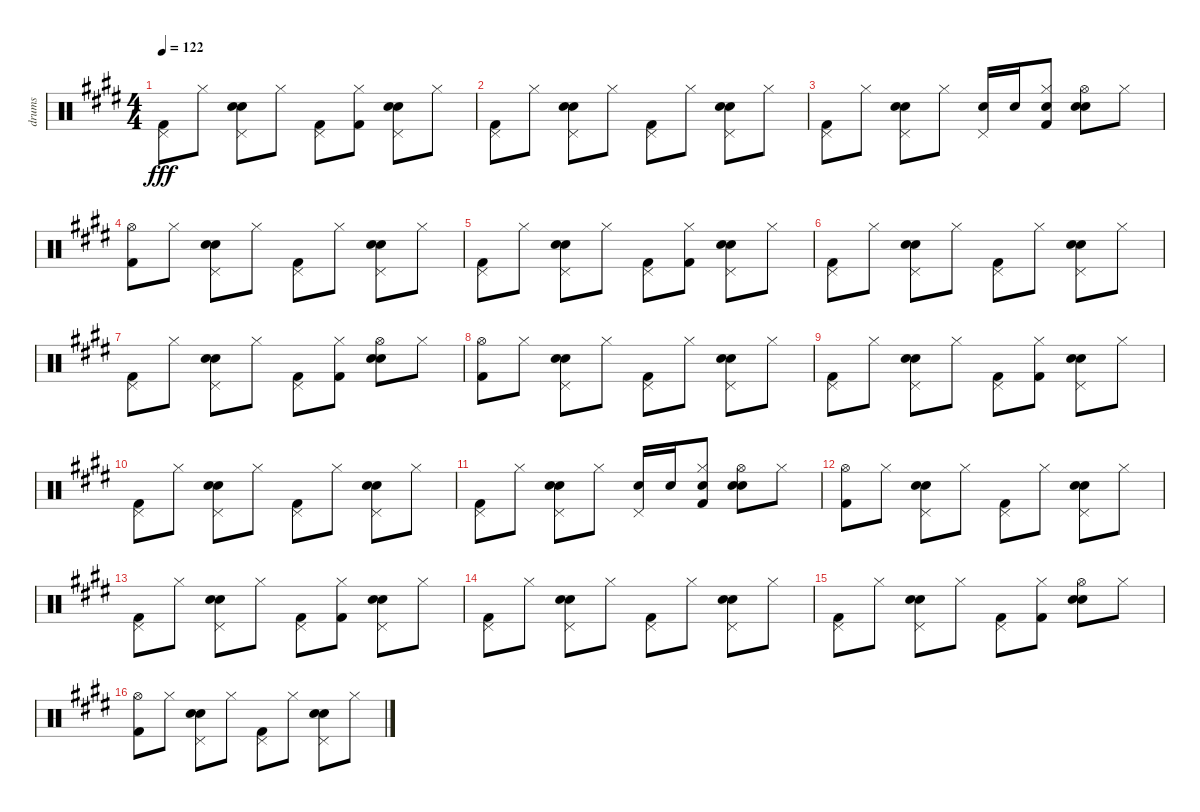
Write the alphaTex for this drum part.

\track ("drums" "drums") {instrument percussion}
\staff {score}
\articulation defaults
\ts (4 4)
\tempo 122
\clef neutral
\ks e
("Pedal Hi-Hat (hit)" "Kick (hit) 2").8{dy fff} "Hi-Hat (closed)".8 ("Hand Clap (hit)" "Pedal Hi-Hat (hit)" "Snare (hit) 2").8 "Hi-Hat (closed)".8 ("Pedal Hi-Hat (hit)" "Kick (hit) 2").8 ("Hi-Hat (closed)" "Kick (hit) 2").8 ("Hand Clap (hit)" "Pedal Hi-Hat (hit)" "Snare (hit) 2").8 "Hi-Hat (closed)".8 |
("Pedal Hi-Hat (hit)" "Kick (hit) 2").8 "Hi-Hat (closed)".8 ("Hand Clap (hit)" "Pedal Hi-Hat (hit)" "Snare (hit) 2").8 "Hi-Hat (closed)".8 ("Pedal Hi-Hat (hit)" "Kick (hit) 2").8 "Hi-Hat (closed)".8 ("Hand Clap (hit)" "Pedal Hi-Hat (hit)" "Snare (hit) 2").8 "Hi-Hat (closed)".8 |
("Kick (hit) 2" "Pedal Hi-Hat (hit)").8 "Hi-Hat (closed)".8 ("Hand Clap (hit)" "Snare (hit) 2" "Pedal Hi-Hat (hit)").8 "Hi-Hat (closed)".8 ("Snare (hit) 2" "Pedal Hi-Hat (hit)").16 "Snare (hit) 2".16 ("Kick (hit) 2" "Snare (hit) 2" "Hi-Hat (closed)").8 ("Hand Clap (hit)" "Hi-Hat (open)" "Snare (hit) 2").8 "Hi-Hat (closed)".8 |
("Hi-Hat (open)" "Kick (hit) 2").8 "Hi-Hat (closed)".8 ("Hand Clap (hit)" "Pedal Hi-Hat (hit)" "Snare (hit) 2").8 "Hi-Hat (closed)".8 ("Pedal Hi-Hat (hit)" "Kick (hit) 2").8 "Hi-Hat (closed)".8 ("Hand Clap (hit)" "Pedal Hi-Hat (hit)" "Snare (hit) 2").8 "Hi-Hat (closed)".8 |
("Pedal Hi-Hat (hit)" "Kick (hit) 2").8 "Hi-Hat (closed)".8 ("Hand Clap (hit)" "Pedal Hi-Hat (hit)" "Snare (hit) 2").8 "Hi-Hat (closed)".8 ("Pedal Hi-Hat (hit)" "Kick (hit) 2").8 ("Hi-Hat (closed)" "Kick (hit) 2").8 ("Hand Clap (hit)" "Pedal Hi-Hat (hit)" "Snare (hit) 2").8 "Hi-Hat (closed)".8 |
("Pedal Hi-Hat (hit)" "Kick (hit) 2").8 "Hi-Hat (closed)".8 ("Hand Clap (hit)" "Pedal Hi-Hat (hit)" "Snare (hit) 2").8 "Hi-Hat (closed)".8 ("Pedal Hi-Hat (hit)" "Kick (hit) 2").8 "Hi-Hat (closed)".8 ("Hand Clap (hit)" "Pedal Hi-Hat (hit)" "Snare (hit) 2").8 "Hi-Hat (closed)".8 |
("Pedal Hi-Hat (hit)" "Kick (hit) 2").8 "Hi-Hat (closed)".8 ("Hand Clap (hit)" "Pedal Hi-Hat (hit)" "Snare (hit) 2").8 "Hi-Hat (closed)".8 ("Kick (hit) 2" "Pedal Hi-Hat (hit)").8 ("Kick (hit) 2" "Hi-Hat (closed)").8 ("Hand Clap (hit)" "Hi-Hat (open)" "Snare (hit) 2").8 "Hi-Hat (closed)".8 |
("Hi-Hat (open)" "Kick (hit) 2").8 "Hi-Hat (closed)".8 ("Hand Clap (hit)" "Pedal Hi-Hat (hit)" "Snare (hit) 2").8 "Hi-Hat (closed)".8 ("Pedal Hi-Hat (hit)" "Kick (hit) 2").8 "Hi-Hat (closed)".8 ("Hand Clap (hit)" "Pedal Hi-Hat (hit)" "Snare (hit) 2").8 "Hi-Hat (closed)".8 |
("Pedal Hi-Hat (hit)" "Kick (hit) 2").8 "Hi-Hat (closed)".8 ("Hand Clap (hit)" "Pedal Hi-Hat (hit)" "Snare (hit) 2").8 "Hi-Hat (closed)".8 ("Pedal Hi-Hat (hit)" "Kick (hit) 2").8 ("Hi-Hat (closed)" "Kick (hit) 2").8 ("Hand Clap (hit)" "Pedal Hi-Hat (hit)" "Snare (hit) 2").8 "Hi-Hat (closed)".8 |
("Pedal Hi-Hat (hit)" "Kick (hit) 2").8 "Hi-Hat (closed)".8 ("Hand Clap (hit)" "Pedal Hi-Hat (hit)" "Snare (hit) 2").8 "Hi-Hat (closed)".8 ("Pedal Hi-Hat (hit)" "Kick (hit) 2").8 "Hi-Hat (closed)".8 ("Hand Clap (hit)" "Pedal Hi-Hat (hit)" "Snare (hit) 2").8 "Hi-Hat (closed)".8 |
("Kick (hit) 2" "Pedal Hi-Hat (hit)").8 "Hi-Hat (closed)".8 ("Hand Clap (hit)" "Pedal Hi-Hat (hit)" "Snare (hit) 2").8 "Hi-Hat (closed)".8 ("Snare (hit) 2" "Pedal Hi-Hat (hit)").16 "Snare (hit) 2".16 ("Kick (hit) 2" "Snare (hit) 2" "Hi-Hat (closed)").8 ("Hand Clap (hit)" "Hi-Hat (open)" "Snare (hit) 2").8 "Hi-Hat (closed)".8 |
("Hi-Hat (open)" "Kick (hit) 2").8 "Hi-Hat (closed)".8 ("Hand Clap (hit)" "Pedal Hi-Hat (hit)" "Snare (hit) 2").8 "Hi-Hat (closed)".8 ("Pedal Hi-Hat (hit)" "Kick (hit) 2").8 "Hi-Hat (closed)".8 ("Hand Clap (hit)" "Pedal Hi-Hat (hit)" "Snare (hit) 2").8 "Hi-Hat (closed)".8 |
("Pedal Hi-Hat (hit)" "Kick (hit) 2").8 "Hi-Hat (closed)".8 ("Hand Clap (hit)" "Pedal Hi-Hat (hit)" "Snare (hit) 2").8 "Hi-Hat (closed)".8 ("Pedal Hi-Hat (hit)" "Kick (hit) 2").8 ("Hi-Hat (closed)" "Kick (hit) 2").8 ("Hand Clap (hit)" "Pedal Hi-Hat (hit)" "Snare (hit) 2").8 "Hi-Hat (closed)".8 |
("Pedal Hi-Hat (hit)" "Kick (hit) 2").8 "Hi-Hat (closed)".8 ("Hand Clap (hit)" "Pedal Hi-Hat (hit)" "Snare (hit) 2").8 "Hi-Hat (closed)".8 ("Pedal Hi-Hat (hit)" "Kick (hit) 2").8 "Hi-Hat (closed)".8 ("Hand Clap (hit)" "Pedal Hi-Hat (hit)" "Snare (hit) 2").8 "Hi-Hat (closed)".8 |
("Pedal Hi-Hat (hit)" "Kick (hit) 2").8 "Hi-Hat (closed)".8 ("Hand Clap (hit)" "Pedal Hi-Hat (hit)" "Snare (hit) 2").8 "Hi-Hat (closed)".8 ("Kick (hit) 2" "Pedal Hi-Hat (hit)").8 ("Kick (hit) 2" "Hi-Hat (closed)").8 ("Hand Clap (hit)" "Hi-Hat (open)" "Snare (hit) 2").8 "Hi-Hat (closed)".8 |
("Hi-Hat (open)" "Kick (hit) 2").8 "Hi-Hat (closed)".8 ("Hand Clap (hit)" "Pedal Hi-Hat (hit)" "Snare (hit) 2").8 "Hi-Hat (closed)".8 ("Pedal Hi-Hat (hit)" "Kick (hit) 2").8 "Hi-Hat (closed)".8 ("Hand Clap (hit)" "Pedal Hi-Hat (hit)" "Snare (hit) 2").8 "Hi-Hat (closed)".8
